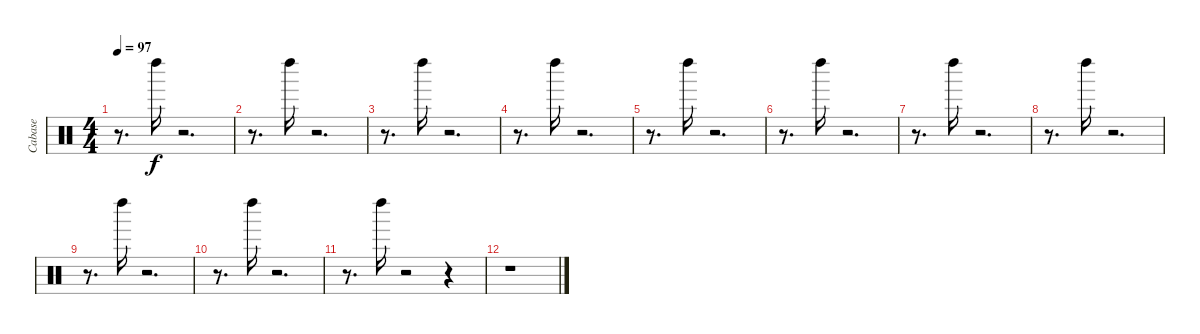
\track ("Cabase" "Cabase") {instrument percussion}
\staff {score}
\articulation defaults
\ts (4 4)
\tempo 97
\clef neutral
\ks c
r.8{d dy f} "Left Maraca (hit)".16 r.2{d} |
r.8{d} "Left Maraca (hit)".16 r.2{d} |
r.8{d} "Left Maraca (hit)".16 r.2{d} |
r.8{d} "Left Maraca (hit)".16 r.2{d} |
r.8{d} "Left Maraca (hit)".16 r.2{d} |
r.8{d} "Left Maraca (hit)".16 r.2{d} |
r.8{d} "Left Maraca (hit)".16 r.2{d} |
r.8{d} "Left Maraca (hit)".16 r.2{d} |
r.8{d} "Left Maraca (hit)".16 r.2{d} |
r.8{d} "Left Maraca (hit)".16 r.2{d} |
r.8{d} "Left Maraca (hit)".16 r.2 r.4 |
r.1
